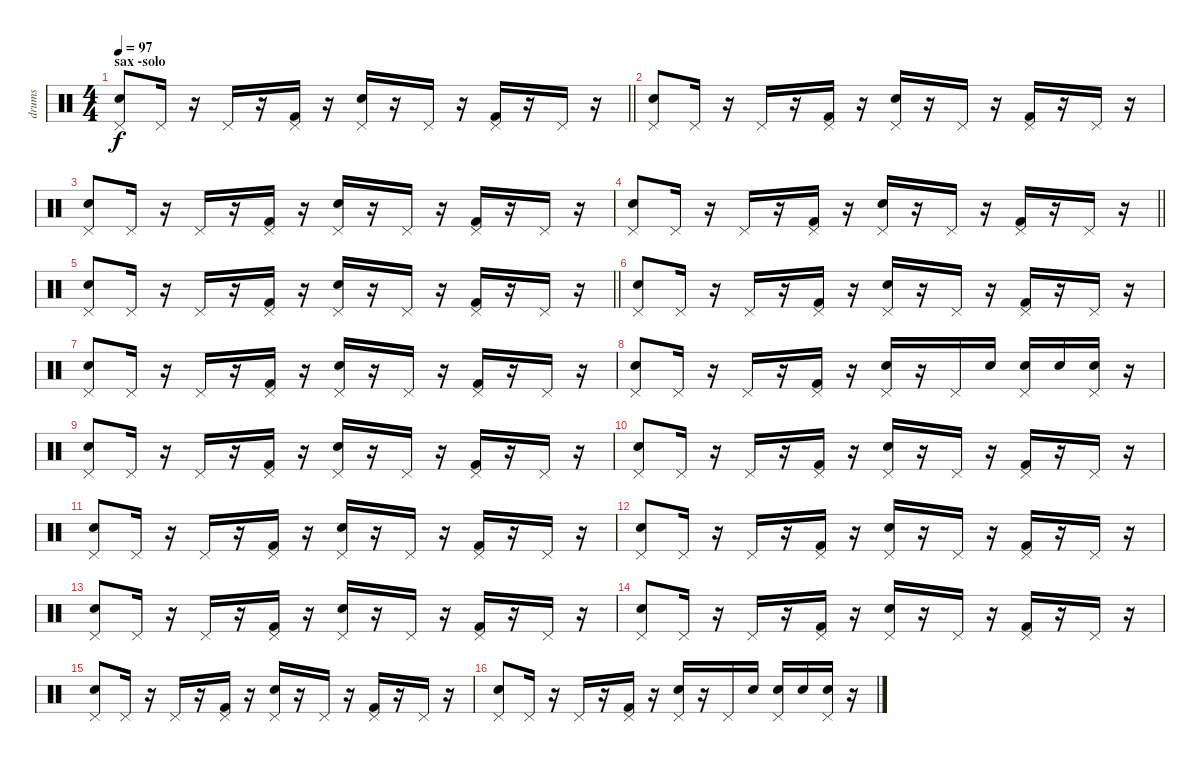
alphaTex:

\track ("drums" "drums") {instrument percussion}
\staff {score}
\articulation defaults
\ts (4 4)
\section ("" "sax -solo")
\tempo 97
\clef neutral
\barLineRight lightlight
\ks c
("Electric Snare (hit)" "Pedal Hi-Hat (hit)").8{dy f} "Pedal Hi-Hat (hit)".16 r.16 "Pedal Hi-Hat (hit)".16 r.16 ("Kick (hit) 2" "Pedal Hi-Hat (hit)").16 r.16 ("Electric Snare (hit)" "Pedal Hi-Hat (hit)").16 r.16 "Pedal Hi-Hat (hit)".16 r.16 ("Kick (hit) 2" "Pedal Hi-Hat (hit)").16 r.16 "Pedal Hi-Hat (hit)".16 r.16 |
("Electric Snare (hit)" "Pedal Hi-Hat (hit)").8 "Pedal Hi-Hat (hit)".16 r.16 "Pedal Hi-Hat (hit)".16 r.16 ("Kick (hit) 2" "Pedal Hi-Hat (hit)").16 r.16 ("Electric Snare (hit)" "Pedal Hi-Hat (hit)").16 r.16 "Pedal Hi-Hat (hit)".16 r.16 ("Kick (hit) 2" "Pedal Hi-Hat (hit)").16 r.16 "Pedal Hi-Hat (hit)".16 r.16 |
("Electric Snare (hit)" "Pedal Hi-Hat (hit)").8 "Pedal Hi-Hat (hit)".16 r.16 "Pedal Hi-Hat (hit)".16 r.16 ("Kick (hit) 2" "Pedal Hi-Hat (hit)").16 r.16 ("Electric Snare (hit)" "Pedal Hi-Hat (hit)").16 r.16 "Pedal Hi-Hat (hit)".16 r.16 ("Kick (hit) 2" "Pedal Hi-Hat (hit)").16 r.16 "Pedal Hi-Hat (hit)".16 r.16 |
\barLineRight lightlight
("Electric Snare (hit)" "Pedal Hi-Hat (hit)").8 "Pedal Hi-Hat (hit)".16 r.16 "Pedal Hi-Hat (hit)".16 r.16 ("Kick (hit) 2" "Pedal Hi-Hat (hit)").16 r.16 ("Electric Snare (hit)" "Pedal Hi-Hat (hit)").16 r.16 "Pedal Hi-Hat (hit)".16 r.16 ("Kick (hit) 2" "Pedal Hi-Hat (hit)").16 r.16 "Pedal Hi-Hat (hit)".16 r.16 |
\barLineRight lightlight
("Electric Snare (hit)" "Pedal Hi-Hat (hit)").8 "Pedal Hi-Hat (hit)".16 r.16 "Pedal Hi-Hat (hit)".16 r.16 ("Kick (hit) 2" "Pedal Hi-Hat (hit)").16 r.16 ("Electric Snare (hit)" "Pedal Hi-Hat (hit)").16 r.16 "Pedal Hi-Hat (hit)".16 r.16 ("Kick (hit) 2" "Pedal Hi-Hat (hit)").16 r.16 "Pedal Hi-Hat (hit)".16 r.16 |
("Electric Snare (hit)" "Pedal Hi-Hat (hit)").8 "Pedal Hi-Hat (hit)".16 r.16 "Pedal Hi-Hat (hit)".16 r.16 ("Kick (hit) 2" "Pedal Hi-Hat (hit)").16 r.16 ("Electric Snare (hit)" "Pedal Hi-Hat (hit)").16 r.16 "Pedal Hi-Hat (hit)".16 r.16 ("Kick (hit) 2" "Pedal Hi-Hat (hit)").16 r.16 "Pedal Hi-Hat (hit)".16 r.16 |
("Electric Snare (hit)" "Pedal Hi-Hat (hit)").8 "Pedal Hi-Hat (hit)".16 r.16 "Pedal Hi-Hat (hit)".16 r.16 ("Kick (hit) 2" "Pedal Hi-Hat (hit)").16 r.16 ("Electric Snare (hit)" "Pedal Hi-Hat (hit)").16 r.16 "Pedal Hi-Hat (hit)".16 r.16 ("Kick (hit) 2" "Pedal Hi-Hat (hit)").16 r.16 "Pedal Hi-Hat (hit)".16 r.16 |
("Electric Snare (hit)" "Pedal Hi-Hat (hit)").8 "Pedal Hi-Hat (hit)".16 r.16 "Pedal Hi-Hat (hit)".16 r.16 ("Kick (hit) 2" "Pedal Hi-Hat (hit)").16 r.16 ("Electric Snare (hit)" "Pedal Hi-Hat (hit)").16 r.16 "Pedal Hi-Hat (hit)".16 "Electric Snare (hit)".16 ("Electric Snare (hit)" "Pedal Hi-Hat (hit)").16 "Electric Snare (hit)".16 ("Electric Snare (hit)" "Pedal Hi-Hat (hit)").16 r.16 |
("Electric Snare (hit)" "Pedal Hi-Hat (hit)").8 "Pedal Hi-Hat (hit)".16 r.16 "Pedal Hi-Hat (hit)".16 r.16 ("Kick (hit) 2" "Pedal Hi-Hat (hit)").16 r.16 ("Electric Snare (hit)" "Pedal Hi-Hat (hit)").16 r.16 "Pedal Hi-Hat (hit)".16 r.16 ("Kick (hit) 2" "Pedal Hi-Hat (hit)").16 r.16 "Pedal Hi-Hat (hit)".16 r.16 |
("Electric Snare (hit)" "Pedal Hi-Hat (hit)").8 "Pedal Hi-Hat (hit)".16 r.16 "Pedal Hi-Hat (hit)".16 r.16 ("Kick (hit) 2" "Pedal Hi-Hat (hit)").16 r.16 ("Electric Snare (hit)" "Pedal Hi-Hat (hit)").16 r.16 "Pedal Hi-Hat (hit)".16 r.16 ("Kick (hit) 2" "Pedal Hi-Hat (hit)").16 r.16 "Pedal Hi-Hat (hit)".16 r.16 |
("Electric Snare (hit)" "Pedal Hi-Hat (hit)").8 "Pedal Hi-Hat (hit)".16 r.16 "Pedal Hi-Hat (hit)".16 r.16 ("Kick (hit) 2" "Pedal Hi-Hat (hit)").16 r.16 ("Electric Snare (hit)" "Pedal Hi-Hat (hit)").16 r.16 "Pedal Hi-Hat (hit)".16 r.16 ("Kick (hit) 2" "Pedal Hi-Hat (hit)").16 r.16 "Pedal Hi-Hat (hit)".16 r.16 |
("Electric Snare (hit)" "Pedal Hi-Hat (hit)").8 "Pedal Hi-Hat (hit)".16 r.16 "Pedal Hi-Hat (hit)".16 r.16 ("Kick (hit) 2" "Pedal Hi-Hat (hit)").16 r.16 ("Electric Snare (hit)" "Pedal Hi-Hat (hit)").16 r.16 "Pedal Hi-Hat (hit)".16 r.16 ("Kick (hit) 2" "Pedal Hi-Hat (hit)").16 r.16 "Pedal Hi-Hat (hit)".16 r.16 |
("Electric Snare (hit)" "Pedal Hi-Hat (hit)").8 "Pedal Hi-Hat (hit)".16 r.16 "Pedal Hi-Hat (hit)".16 r.16 ("Kick (hit) 2" "Pedal Hi-Hat (hit)").16 r.16 ("Electric Snare (hit)" "Pedal Hi-Hat (hit)").16 r.16 "Pedal Hi-Hat (hit)".16 r.16 ("Kick (hit) 2" "Pedal Hi-Hat (hit)").16 r.16 "Pedal Hi-Hat (hit)".16 r.16 |
("Electric Snare (hit)" "Pedal Hi-Hat (hit)").8 "Pedal Hi-Hat (hit)".16 r.16 "Pedal Hi-Hat (hit)".16 r.16 ("Kick (hit) 2" "Pedal Hi-Hat (hit)").16 r.16 ("Electric Snare (hit)" "Pedal Hi-Hat (hit)").16 r.16 "Pedal Hi-Hat (hit)".16 r.16 ("Kick (hit) 2" "Pedal Hi-Hat (hit)").16 r.16 "Pedal Hi-Hat (hit)".16 r.16 |
("Electric Snare (hit)" "Pedal Hi-Hat (hit)").8 "Pedal Hi-Hat (hit)".16 r.16 "Pedal Hi-Hat (hit)".16 r.16 ("Kick (hit) 2" "Pedal Hi-Hat (hit)").16 r.16 ("Electric Snare (hit)" "Pedal Hi-Hat (hit)").16 r.16 "Pedal Hi-Hat (hit)".16 r.16 ("Kick (hit) 2" "Pedal Hi-Hat (hit)").16 r.16 "Pedal Hi-Hat (hit)".16 r.16 |
("Electric Snare (hit)" "Pedal Hi-Hat (hit)").8 "Pedal Hi-Hat (hit)".16 r.16 "Pedal Hi-Hat (hit)".16 r.16 ("Kick (hit) 2" "Pedal Hi-Hat (hit)").16 r.16 ("Electric Snare (hit)" "Pedal Hi-Hat (hit)").16 r.16 "Pedal Hi-Hat (hit)".16 "Electric Snare (hit)".16 ("Electric Snare (hit)" "Pedal Hi-Hat (hit)").16 "Electric Snare (hit)".16 ("Electric Snare (hit)" "Pedal Hi-Hat (hit)").16 r.16
